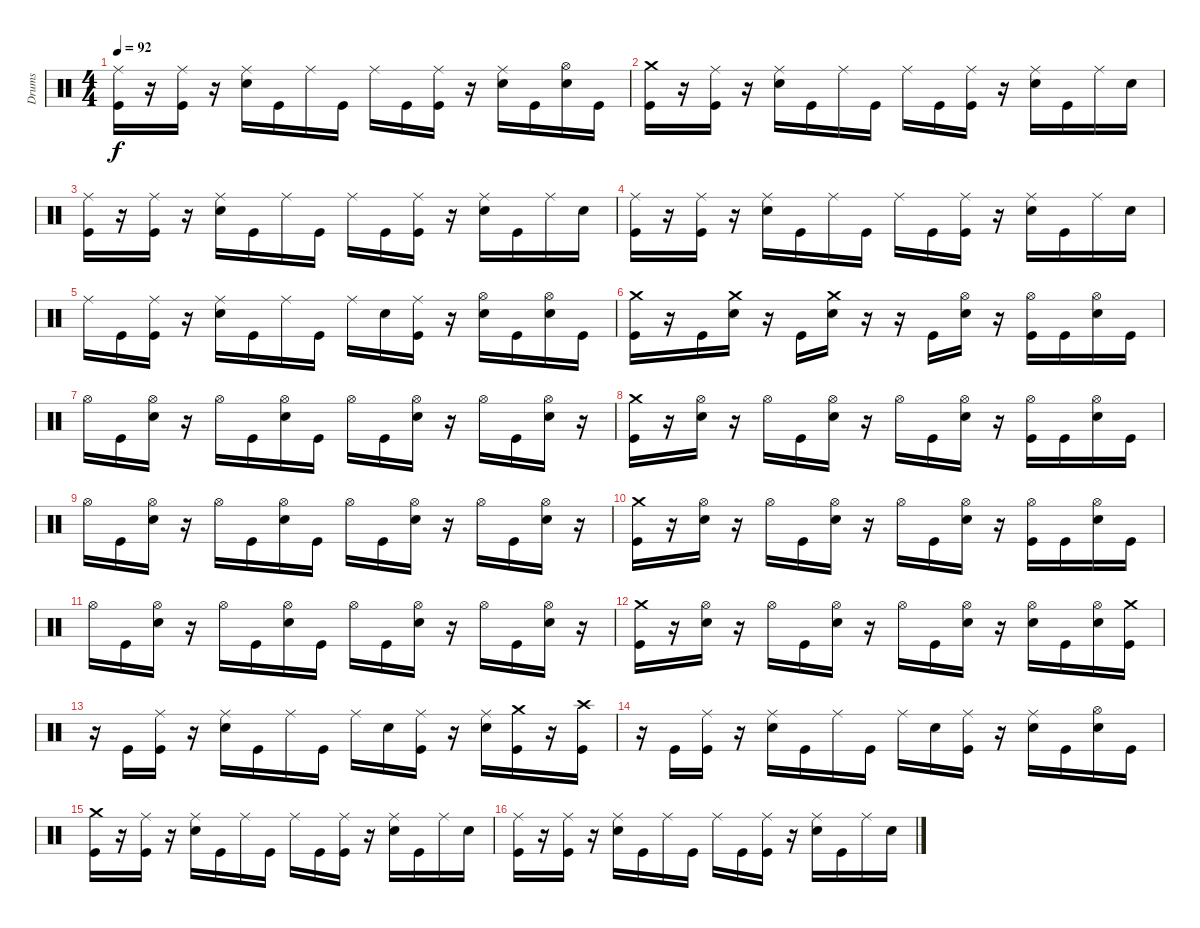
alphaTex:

\track ("Drums" "Drums") {instrument percussion}
\staff {score}
\articulation defaults
\ts (4 4)
\tempo 92
\clef neutral
\ks c
("Ride (middle)" "Kick (hit)").16{dy f} r.16 ("Ride (middle)" "Kick (hit)").16 r.16 ("Ride (middle)" "Snare (hit) 2").16 "Kick (hit)".16 "Ride (middle)".16 "Kick (hit)".16 "Ride (middle)".16 "Kick (hit)".16 ("Ride (middle)" "Kick (hit)").16 r.16 ("Ride (middle)" "Snare (hit) 2").16 "Kick (hit)".16 ("Hi-Hat (open)" "Snare (hit) 2").16 "Kick (hit)".16 |
("Crash medium (hit)" "Kick (hit)").16 r.16 ("Ride (middle)" "Kick (hit)").16 r.16 ("Ride (middle)" "Snare (hit) 2").16 "Kick (hit)".16 "Ride (middle)".16 "Kick (hit)".16 "Ride (middle)".16 "Kick (hit)".16 ("Ride (middle)" "Kick (hit)").16 r.16 ("Ride (middle)" "Snare (hit) 2").16 "Kick (hit)".16 "Ride (middle)".16 "Snare (hit) 2".16 |
("Ride (middle)" "Kick (hit)").16 r.16 ("Ride (middle)" "Kick (hit)").16 r.16 ("Ride (middle)" "Snare (hit) 2").16 "Kick (hit)".16 "Ride (middle)".16 "Kick (hit)".16 "Ride (middle)".16 "Kick (hit)".16 ("Ride (middle)" "Kick (hit)").16 r.16 ("Ride (middle)" "Snare (hit) 2").16 "Kick (hit)".16 "Ride (middle)".16 "Snare (hit) 2".16 |
("Ride (middle)" "Kick (hit)").16 r.16 ("Ride (middle)" "Kick (hit)").16 r.16 ("Ride (middle)" "Snare (hit) 2").16 "Kick (hit)".16 "Ride (middle)".16 "Kick (hit)".16 "Ride (middle)".16 "Kick (hit)".16 ("Ride (middle)" "Kick (hit)").16 r.16 ("Ride (middle)" "Snare (hit) 2").16 "Kick (hit)".16 "Ride (middle)".16 "Snare (hit) 2".16 |
"Ride (middle)".16 "Kick (hit)".16 ("Ride (middle)" "Kick (hit)").16 r.16 ("Ride (middle)" "Snare (hit) 2").16 "Kick (hit)".16 "Ride (middle)".16 "Kick (hit)".16 "Ride (middle)".16 "Snare (hit) 2".16 ("Ride (middle)" "Kick (hit)").16 r.16 ("Hi-Hat (open)" "Snare (hit) 2").16 "Kick (hit)".16 ("Hi-Hat (open)" "Snare (hit) 2").16 "Kick (hit)".16 |
("Crash medium (hit)" "Kick (hit)").16 r.16 "Kick (hit)".16 ("Crash medium (hit)" "Snare (hit) 2").16 r.16 "Kick (hit)".16 ("Crash medium (hit)" "Snare (hit) 2").16 r.16 r.16 "Kick (hit)".16 ("Hi-Hat (open)" "Snare (hit) 2").16 r.16 ("Hi-Hat (open)" "Kick (hit)").16 "Kick (hit)".16 ("Hi-Hat (open)" "Snare (hit) 2").16 "Kick (hit)".16 |
"Hi-Hat (open)".16 "Kick (hit)".16 ("Hi-Hat (open)" "Snare (hit) 2").16 r.16 "Hi-Hat (open)".16 "Kick (hit)".16 ("Hi-Hat (open)" "Snare (hit) 2").16 "Kick (hit)".16 "Hi-Hat (open)".16 "Kick (hit)".16 ("Hi-Hat (open)" "Snare (hit) 2").16 r.16 "Hi-Hat (open)".16 "Kick (hit)".16 ("Hi-Hat (open)" "Snare (hit) 2").16 r.16 |
("Crash medium (hit)" "Kick (hit)").16 r.16 ("Hi-Hat (open)" "Snare (hit) 2").16 r.16 "Hi-Hat (open)".16 "Kick (hit)".16 ("Hi-Hat (open)" "Snare (hit) 2").16 r.16 "Hi-Hat (open)".16 "Kick (hit)".16 ("Hi-Hat (open)" "Snare (hit) 2").16 r.16 ("Hi-Hat (open)" "Kick (hit)").16 "Kick (hit)".16 ("Hi-Hat (open)" "Snare (hit) 2").16 "Kick (hit)".16 |
"Hi-Hat (open)".16 "Kick (hit)".16 ("Hi-Hat (open)" "Snare (hit) 2").16 r.16 "Hi-Hat (open)".16 "Kick (hit)".16 ("Hi-Hat (open)" "Snare (hit) 2").16 "Kick (hit)".16 "Hi-Hat (open)".16 "Kick (hit)".16 ("Hi-Hat (open)" "Snare (hit) 2").16 r.16 "Hi-Hat (open)".16 "Kick (hit)".16 ("Hi-Hat (open)" "Snare (hit) 2").16 r.16 |
("Crash medium (hit)" "Kick (hit)").16 r.16 ("Hi-Hat (open)" "Snare (hit) 2").16 r.16 "Hi-Hat (open)".16 "Kick (hit)".16 ("Hi-Hat (open)" "Snare (hit) 2").16 r.16 "Hi-Hat (open)".16 "Kick (hit)".16 ("Hi-Hat (open)" "Snare (hit) 2").16 r.16 ("Hi-Hat (open)" "Kick (hit)").16 "Kick (hit)".16 ("Hi-Hat (open)" "Snare (hit) 2").16 "Kick (hit)".16 |
"Hi-Hat (open)".16 "Kick (hit)".16 ("Hi-Hat (open)" "Snare (hit) 2").16 r.16 "Hi-Hat (open)".16 "Kick (hit)".16 ("Hi-Hat (open)" "Snare (hit) 2").16 "Kick (hit)".16 "Hi-Hat (open)".16 "Kick (hit)".16 ("Hi-Hat (open)" "Snare (hit) 2").16 r.16 "Hi-Hat (open)".16 "Kick (hit)".16 ("Hi-Hat (open)" "Snare (hit) 2").16 r.16 |
("Crash medium (hit)" "Kick (hit)").16 r.16 ("Hi-Hat (open)" "Snare (hit) 2").16 r.16 "Hi-Hat (open)".16 "Kick (hit)".16 ("Hi-Hat (open)" "Snare (hit) 2").16 r.16 "Hi-Hat (open)".16 "Kick (hit)".16 ("Hi-Hat (open)" "Snare (hit) 2").16 r.16 ("Hi-Hat (open)" "Snare (hit) 2").16 "Kick (hit)".16 ("Hi-Hat (open)" "Snare (hit) 2").16 ("Crash medium (hit)" "Kick (hit)").16 |
r.16 "Kick (hit)".16 ("Ride (middle)" "Kick (hit)").16 r.16 ("Ride (middle)" "Snare (hit) 2").16 "Kick (hit)".16 "Ride (middle)".16 "Kick (hit)".16 "Ride (middle)".16 "Snare (hit) 2".16 ("Ride (middle)" "Kick (hit)").16 r.16 ("Ride (middle)" "Snare (hit) 2").16 ("Crash medium (hit)" "Kick (hit)").16 r.16 ("Crash high (hit)" "Kick (hit)").16 |
r.16 "Kick (hit)".16 ("Ride (middle)" "Kick (hit)").16 r.16 ("Ride (middle)" "Snare (hit) 2").16 "Kick (hit)".16 "Ride (middle)".16 "Kick (hit)".16 "Ride (middle)".16 "Snare (hit) 2".16 ("Ride (middle)" "Kick (hit)").16 r.16 ("Ride (middle)" "Snare (hit) 2").16 "Kick (hit)".16 ("Hi-Hat (open)" "Snare (hit) 2").16 "Kick (hit)".16 |
("Crash medium (hit)" "Kick (hit)").16 r.16 ("Ride (middle)" "Kick (hit)").16 r.16 ("Ride (middle)" "Snare (hit) 2").16 "Kick (hit)".16 "Ride (middle)".16 "Kick (hit)".16 "Ride (middle)".16 "Kick (hit)".16 ("Ride (middle)" "Kick (hit)").16 r.16 ("Ride (middle)" "Snare (hit) 2").16 "Kick (hit)".16 "Ride (middle)".16 "Snare (hit) 2".16 |
("Ride (middle)" "Kick (hit)").16 r.16 ("Ride (middle)" "Kick (hit)").16 r.16 ("Ride (middle)" "Snare (hit) 2").16 "Kick (hit)".16 "Ride (middle)".16 "Kick (hit)".16 "Ride (middle)".16 "Kick (hit)".16 ("Ride (middle)" "Kick (hit)").16 r.16 ("Ride (middle)" "Snare (hit) 2").16 "Kick (hit)".16 "Ride (middle)".16 "Snare (hit) 2".16
